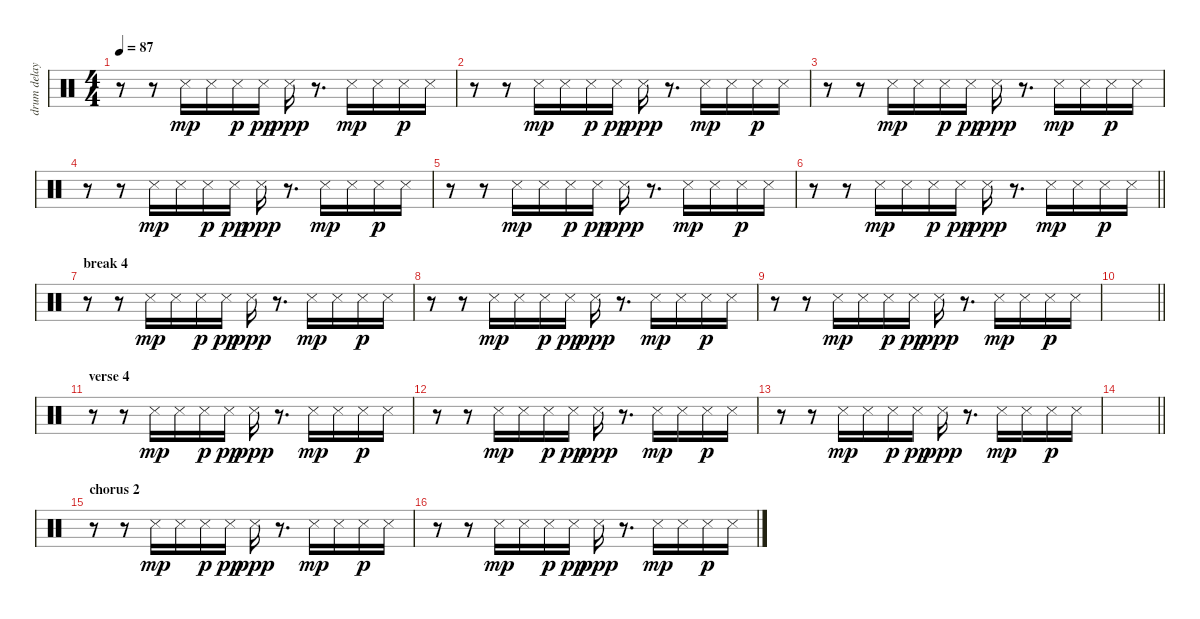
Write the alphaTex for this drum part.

\track ("drum delay" "drum delay") {instrument percussion}
\staff {score}
\articulation defaults
\ts (4 4)
\tempo 87
\clef neutral
\ks c
r.8{dy p} r.8 "Snare (side stick) 3".16{dy mp} "Snare (side stick) 3".16 "Snare (side stick) 3".16{dy p} "Snare (side stick) 3".16{dy pp} "Snare (side stick) 3".16{dy ppp} r.8{d} "Snare (side stick) 3".16{dy mp} "Snare (side stick) 3".16 "Snare (side stick) 3".16{dy p} "Snare (side stick) 3".16 |
r.8 r.8 "Snare (side stick) 3".16{dy mp} "Snare (side stick) 3".16 "Snare (side stick) 3".16{dy p} "Snare (side stick) 3".16{dy pp} "Snare (side stick) 3".16{dy ppp} r.8{d} "Snare (side stick) 3".16{dy mp} "Snare (side stick) 3".16 "Snare (side stick) 3".16{dy p} "Snare (side stick) 3".16 |
r.8 r.8 "Snare (side stick) 3".16{dy mp} "Snare (side stick) 3".16 "Snare (side stick) 3".16{dy p} "Snare (side stick) 3".16{dy pp} "Snare (side stick) 3".16{dy ppp} r.8{d} "Snare (side stick) 3".16{dy mp} "Snare (side stick) 3".16 "Snare (side stick) 3".16{dy p} "Snare (side stick) 3".16 |
r.8 r.8 "Snare (side stick) 3".16{dy mp} "Snare (side stick) 3".16 "Snare (side stick) 3".16{dy p} "Snare (side stick) 3".16{dy pp} "Snare (side stick) 3".16{dy ppp} r.8{d} "Snare (side stick) 3".16{dy mp} "Snare (side stick) 3".16 "Snare (side stick) 3".16{dy p} "Snare (side stick) 3".16 |
r.8 r.8 "Snare (side stick) 3".16{dy mp} "Snare (side stick) 3".16 "Snare (side stick) 3".16{dy p} "Snare (side stick) 3".16{dy pp} "Snare (side stick) 3".16{dy ppp} r.8{d} "Snare (side stick) 3".16{dy mp} "Snare (side stick) 3".16 "Snare (side stick) 3".16{dy p} "Snare (side stick) 3".16 |
\barLineRight lightlight
r.8 r.8 "Snare (side stick) 3".16{dy mp} "Snare (side stick) 3".16 "Snare (side stick) 3".16{dy p} "Snare (side stick) 3".16{dy pp} "Snare (side stick) 3".16{dy ppp} r.8{d} "Snare (side stick) 3".16{dy mp} "Snare (side stick) 3".16 "Snare (side stick) 3".16{dy p} "Snare (side stick) 3".16 |
\section ("" "break 4")
r.8{volume 6} r.8 "Snare (side stick) 3".16{dy mp} "Snare (side stick) 3".16 "Snare (side stick) 3".16{dy p} "Snare (side stick) 3".16{dy pp} "Snare (side stick) 3".16{dy ppp} r.8{d} "Snare (side stick) 3".16{dy mp} "Snare (side stick) 3".16 "Snare (side stick) 3".16{dy p} "Snare (side stick) 3".16 |
r.8 r.8 "Snare (side stick) 3".16{dy mp} "Snare (side stick) 3".16 "Snare (side stick) 3".16{dy p} "Snare (side stick) 3".16{dy pp} "Snare (side stick) 3".16{dy ppp} r.8{d} "Snare (side stick) 3".16{dy mp} "Snare (side stick) 3".16 "Snare (side stick) 3".16{dy p} "Snare (side stick) 3".16 |
r.8 r.8 "Snare (side stick) 3".16{dy mp} "Snare (side stick) 3".16 "Snare (side stick) 3".16{dy p} "Snare (side stick) 3".16{dy pp} "Snare (side stick) 3".16{dy ppp} r.8{d} "Snare (side stick) 3".16{dy mp} "Snare (side stick) 3".16 "Snare (side stick) 3".16{dy p} "Snare (side stick) 3".16 |
\barLineRight lightlight
|
\section ("" "verse 4")
r.8{volume 16} r.8 "Snare (side stick) 3".16{dy mp} "Snare (side stick) 3".16 "Snare (side stick) 3".16{dy p} "Snare (side stick) 3".16{dy pp} "Snare (side stick) 3".16{dy ppp} r.8{d} "Snare (side stick) 3".16{dy mp} "Snare (side stick) 3".16 "Snare (side stick) 3".16{dy p} "Snare (side stick) 3".16 |
r.8 r.8 "Snare (side stick) 3".16{dy mp} "Snare (side stick) 3".16 "Snare (side stick) 3".16{dy p} "Snare (side stick) 3".16{dy pp} "Snare (side stick) 3".16{dy ppp} r.8{d} "Snare (side stick) 3".16{dy mp} "Snare (side stick) 3".16 "Snare (side stick) 3".16{dy p} "Snare (side stick) 3".16 |
r.8 r.8 "Snare (side stick) 3".16{dy mp} "Snare (side stick) 3".16 "Snare (side stick) 3".16{dy p} "Snare (side stick) 3".16{dy pp} "Snare (side stick) 3".16{dy ppp} r.8{d} "Snare (side stick) 3".16{dy mp} "Snare (side stick) 3".16 "Snare (side stick) 3".16{dy p} "Snare (side stick) 3".16 |
\barLineRight lightlight
|
\section ("" "chorus 2")
r.8 r.8 "Snare (side stick) 3".16{dy mp} "Snare (side stick) 3".16 "Snare (side stick) 3".16{dy p} "Snare (side stick) 3".16{dy pp} "Snare (side stick) 3".16{dy ppp} r.8{d} "Snare (side stick) 3".16{dy mp} "Snare (side stick) 3".16 "Snare (side stick) 3".16{dy p} "Snare (side stick) 3".16 |
r.8 r.8 "Snare (side stick) 3".16{dy mp} "Snare (side stick) 3".16 "Snare (side stick) 3".16{dy p} "Snare (side stick) 3".16{dy pp} "Snare (side stick) 3".16{dy ppp} r.8{d} "Snare (side stick) 3".16{dy mp} "Snare (side stick) 3".16 "Snare (side stick) 3".16{dy p} "Snare (side stick) 3".16
